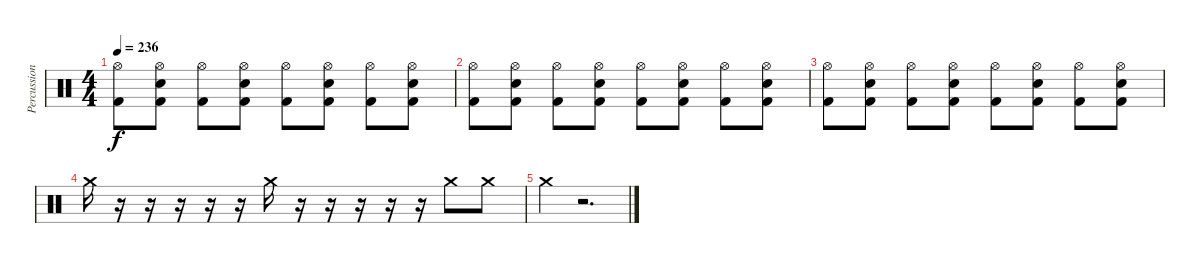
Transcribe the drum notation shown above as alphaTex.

\track ("Percussion" "Percussion") {instrument percussion}
\staff {score}
\articulation defaults
\ts (4 4)
\tempo 236
\clef neutral
\ks c
("Hi-Hat (open)" "Kick (hit) 2").8{dy f} ("Hi-Hat (open)" "Snare (hit) 2" "Kick (hit) 2").8 ("Hi-Hat (open)" "Kick (hit) 2").8 ("Hi-Hat (open)" "Snare (hit) 2" "Kick (hit) 2").8 ("Hi-Hat (open)" "Kick (hit) 2").8 ("Hi-Hat (open)" "Snare (hit) 2" "Kick (hit) 2").8 ("Hi-Hat (open)" "Kick (hit) 2").8 ("Hi-Hat (open)" "Snare (hit) 2" "Kick (hit) 2").8 |
("Hi-Hat (open)" "Kick (hit) 2").8 ("Hi-Hat (open)" "Snare (hit) 2" "Kick (hit) 2").8 ("Hi-Hat (open)" "Kick (hit) 2").8 ("Hi-Hat (open)" "Snare (hit) 2" "Kick (hit) 2").8 ("Hi-Hat (open)" "Kick (hit) 2").8 ("Hi-Hat (open)" "Snare (hit) 2" "Kick (hit) 2").8 ("Hi-Hat (open)" "Kick (hit) 2").8 ("Hi-Hat (open)" "Snare (hit) 2" "Kick (hit) 2").8 |
("Hi-Hat (open)" "Kick (hit) 2").8 ("Hi-Hat (open)" "Snare (hit) 2" "Kick (hit) 2").8 ("Hi-Hat (open)" "Kick (hit) 2").8 ("Hi-Hat (open)" "Snare (hit) 2" "Kick (hit) 2").8 ("Hi-Hat (open)" "Kick (hit) 2").8 ("Hi-Hat (open)" "Snare (hit) 2" "Kick (hit) 2").8 ("Hi-Hat (open)" "Kick (hit) 2").8 ("Hi-Hat (open)" "Snare (hit) 2" "Kick (hit) 2").8 |
"Crash medium (hit)".16 r.16 r.16 r.16 r.16 r.16 "Crash medium (hit)".16 r.16 r.16 r.16 r.16 r.16 "Crash medium (hit)".8 "Crash medium (hit)".8 |
"Crash medium (hit)".4 r.2{d}
